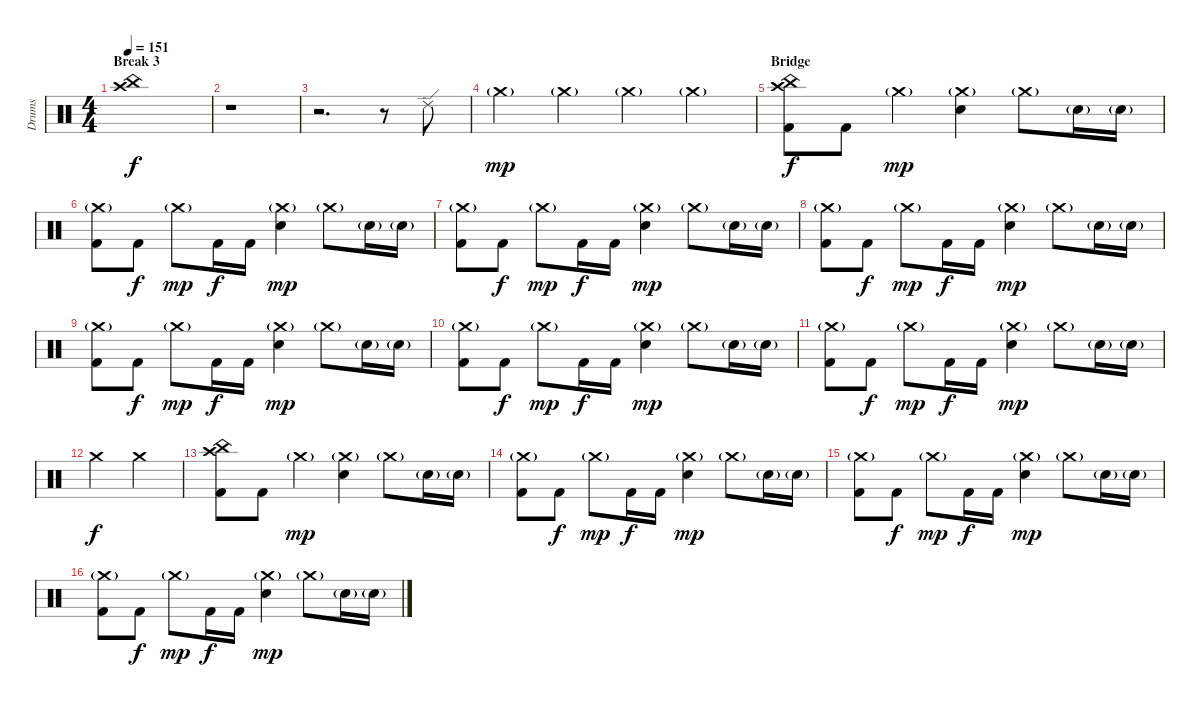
\track ("Drums" "Drums") {instrument percussion}
\staff {score}
\articulation defaults
\ts (4 4)
\section ("" "Break 3")
\tempo 151
\clef neutral
\ks c
("Crash high (hit)" "China (hit)").1{dy f} |
r.1 |
r.2{d} r.8 "Ride (edge) 2".8 |
"Crash medium (hit)"{g}.4{dy mp} "Crash medium (hit)"{g}.4 "Crash medium (hit)"{g}.4 "Crash medium (hit)"{g}.4 |
\section ("" "Bridge")
("Crash high (hit)" "China (hit)" "Kick (hit) 2").8{dy f} "Kick (hit) 2".8 "Crash medium (hit)"{g}.4{dy mp} ("Crash medium (hit)"{g} "Electric Snare (hit)").4 "Crash medium (hit)"{g}.8 "Electric Snare (hit)"{g}.16 "Electric Snare (hit)"{g}.16 |
("Crash medium (hit)"{g} "Kick (hit) 2").8 "Kick (hit) 2".8{dy f} "Crash medium (hit)"{g}.8{dy mp} "Kick (hit) 2".16{dy f} "Kick (hit) 2".16 ("Crash medium (hit)"{g} "Electric Snare (hit)").4{dy mp} "Crash medium (hit)"{g}.8 "Electric Snare (hit)"{g}.16 "Electric Snare (hit)"{g}.16 |
("Crash medium (hit)"{g} "Kick (hit) 2").8 "Kick (hit) 2".8{dy f} "Crash medium (hit)"{g}.8{dy mp} "Kick (hit) 2".16{dy f} "Kick (hit) 2".16 ("Crash medium (hit)"{g} "Electric Snare (hit)").4{dy mp} "Crash medium (hit)"{g}.8 "Electric Snare (hit)"{g}.16 "Electric Snare (hit)"{g}.16 |
("Crash medium (hit)"{g} "Kick (hit) 2").8 "Kick (hit) 2".8{dy f} "Crash medium (hit)"{g}.8{dy mp} "Kick (hit) 2".16{dy f} "Kick (hit) 2".16 ("Crash medium (hit)"{g} "Electric Snare (hit)").4{dy mp} "Crash medium (hit)"{g}.8 "Electric Snare (hit)"{g}.16 "Electric Snare (hit)"{g}.16 |
("Crash medium (hit)"{g} "Kick (hit) 2").8 "Kick (hit) 2".8{dy f} "Crash medium (hit)"{g}.8{dy mp} "Kick (hit) 2".16{dy f} "Kick (hit) 2".16 ("Crash medium (hit)"{g} "Electric Snare (hit)").4{dy mp} "Crash medium (hit)"{g}.8 "Electric Snare (hit)"{g}.16 "Electric Snare (hit)"{g}.16 |
("Crash medium (hit)"{g} "Kick (hit) 2").8 "Kick (hit) 2".8{dy f} "Crash medium (hit)"{g}.8{dy mp} "Kick (hit) 2".16{dy f} "Kick (hit) 2".16 ("Crash medium (hit)"{g} "Electric Snare (hit)").4{dy mp} "Crash medium (hit)"{g}.8 "Electric Snare (hit)"{g}.16 "Electric Snare (hit)"{g}.16 |
("Crash medium (hit)"{g} "Kick (hit) 2").8 "Kick (hit) 2".8{dy f} "Crash medium (hit)"{g}.8{dy mp} "Kick (hit) 2".16{dy f} "Kick (hit) 2".16 ("Crash medium (hit)"{g} "Electric Snare (hit)").4{dy mp} "Crash medium (hit)"{g}.8 "Electric Snare (hit)"{g}.16 "Electric Snare (hit)"{g}.16 |
"Crash medium (hit)".2{dy f} "Crash medium (hit)".2 |
("Crash high (hit)" "China (hit)" "Kick (hit) 2").8 "Kick (hit) 2".8 "Crash medium (hit)"{g}.4{dy mp} ("Crash medium (hit)"{g} "Electric Snare (hit)").4 "Crash medium (hit)"{g}.8 "Electric Snare (hit)"{g}.16 "Electric Snare (hit)"{g}.16 |
("Crash medium (hit)"{g} "Kick (hit) 2").8 "Kick (hit) 2".8{dy f} "Crash medium (hit)"{g}.8{dy mp} "Kick (hit) 2".16{dy f} "Kick (hit) 2".16 ("Crash medium (hit)"{g} "Electric Snare (hit)").4{dy mp} "Crash medium (hit)"{g}.8 "Electric Snare (hit)"{g}.16 "Electric Snare (hit)"{g}.16 |
("Crash medium (hit)"{g} "Kick (hit) 2").8 "Kick (hit) 2".8{dy f} "Crash medium (hit)"{g}.8{dy mp} "Kick (hit) 2".16{dy f} "Kick (hit) 2".16 ("Crash medium (hit)"{g} "Electric Snare (hit)").4{dy mp} "Crash medium (hit)"{g}.8 "Electric Snare (hit)"{g}.16 "Electric Snare (hit)"{g}.16 |
("Crash medium (hit)"{g} "Kick (hit) 2").8 "Kick (hit) 2".8{dy f} "Crash medium (hit)"{g}.8{dy mp} "Kick (hit) 2".16{dy f} "Kick (hit) 2".16 ("Crash medium (hit)"{g} "Electric Snare (hit)").4{dy mp} "Crash medium (hit)"{g}.8 "Electric Snare (hit)"{g}.16 "Electric Snare (hit)"{g}.16
